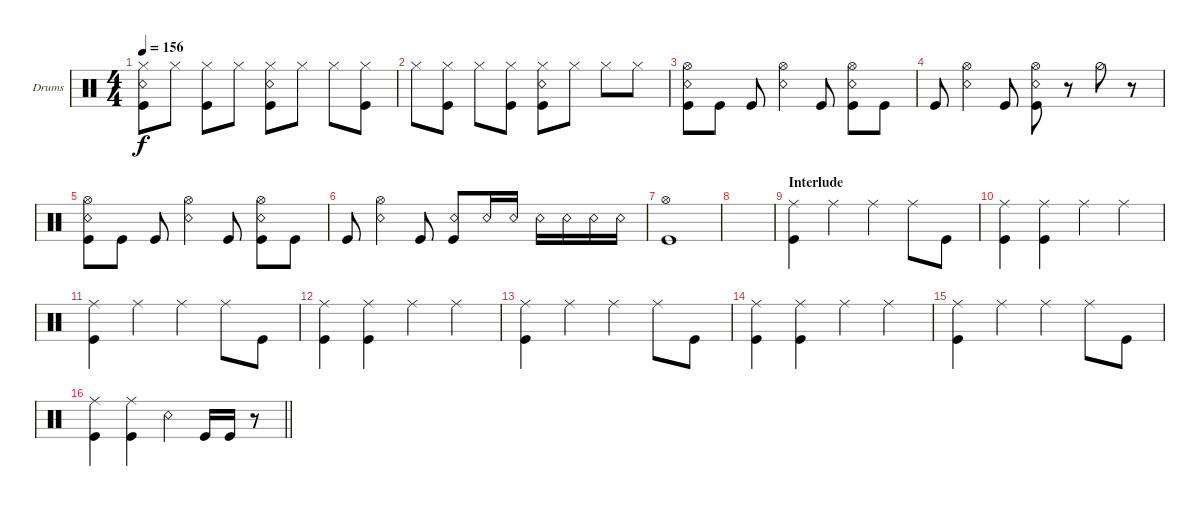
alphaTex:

\bracketExtendMode groupsimilarinstruments
\firstSystemTrackNameOrientation horizontal
\otherSystemsTrackNameOrientation horizontal
\track ("Drums" "Drums") {instrument percussion}
\staff {score}
\articulation defaults
\ts (4 4)
\tempo 156
\clef neutral
\ks c
("Kick (hit)" "Snare (rim shot)" "Hi-Hat (closed)").8{dy f} "Hi-Hat (closed)".8 ("Kick (hit)" "Hi-Hat (closed)").8 "Hi-Hat (closed)".8 ("Kick (hit)" "Snare (rim shot)" "Hi-Hat (closed)").8 "Hi-Hat (closed)".8 "Hi-Hat (closed)".8 ("Kick (hit)" "Hi-Hat (closed)").8 |
"Hi-Hat (closed)".8 ("Kick (hit)" "Hi-Hat (closed)").8 "Hi-Hat (closed)".8 ("Kick (hit)" "Hi-Hat (closed)").8 ("Kick (hit)" "Snare (rim shot)" "Hi-Hat (closed)").8 "Hi-Hat (closed)".8 "Hi-Hat (closed)".8 "Hi-Hat (closed)".8 |
("Kick (hit)" "Snare (rim shot)" "Hi-Hat (open)").8 "Kick (hit)".8 "Kick (hit)".8 ("Snare (rim shot)" "Hi-Hat (open)").4 "Kick (hit)".8 ("Kick (hit)" "Snare (rim shot)" "Hi-Hat (open)").8 "Kick (hit)".8 |
"Kick (hit)".8 ("Snare (rim shot)" "Hi-Hat (open)").4 "Kick (hit)".8 ("Kick (hit)" "Snare (rim shot)" "Hi-Hat (open)").8 r.8 "Hi-Hat (half)".8 r.8 |
("Kick (hit)" "Snare (rim shot)" "Hi-Hat (open)").8 "Kick (hit)".8 "Kick (hit)".8 ("Snare (rim shot)" "Hi-Hat (open)").4 "Kick (hit)".8 ("Kick (hit)" "Snare (rim shot)" "Hi-Hat (open)").8 "Kick (hit)".8 |
"Kick (hit)".8 ("Snare (rim shot)" "Hi-Hat (open)").4 "Kick (hit)".8 ("Kick (hit)" "Snare (rim shot)").8 "Snare (rim shot)".16 "Snare (rim shot)".16 "Snare (rim shot)".16 "Snare (rim shot)".16 "Snare (rim shot)".16 "Snare (rim shot)".16 |
("Kick (hit)" "Hi-Hat (open)").1 |
|
\section ("" "Interlude")
("Kick (hit)" "Ride (middle)").4 "Ride (middle)".4 "Ride (middle)".4 "Ride (middle)".8 "Kick (hit)".8 |
("Ride (middle)" "Kick (hit)").4 ("Ride (middle)" "Kick (hit)").4 "Ride (middle)".4 "Ride (middle)".4 |
("Kick (hit)" "Ride (middle)").4 "Ride (middle)".4 "Ride (middle)".4 "Ride (middle)".8 "Kick (hit)".8 |
("Ride (middle)" "Kick (hit)").4 ("Ride (middle)" "Kick (hit)").4 "Ride (middle)".4 "Ride (middle)".4 |
("Kick (hit)" "Ride (middle)").4 "Ride (middle)".4 "Ride (middle)".4 "Ride (middle)".8 "Kick (hit)".8 |
("Ride (middle)" "Kick (hit)").4 ("Ride (middle)" "Kick (hit)").4 "Ride (middle)".4 "Ride (middle)".4 |
("Kick (hit)" "Ride (middle)").4 "Ride (middle)".4 "Ride (middle)".4 "Ride (middle)".8 "Kick (hit)".8 |
\barLineRight lightlight
("Ride (middle)" "Kick (hit)").4 ("Ride (middle)" "Kick (hit)").4 "Snare (rim shot)".4 "Kick (hit)".16 "Kick (hit)".16 r.8
